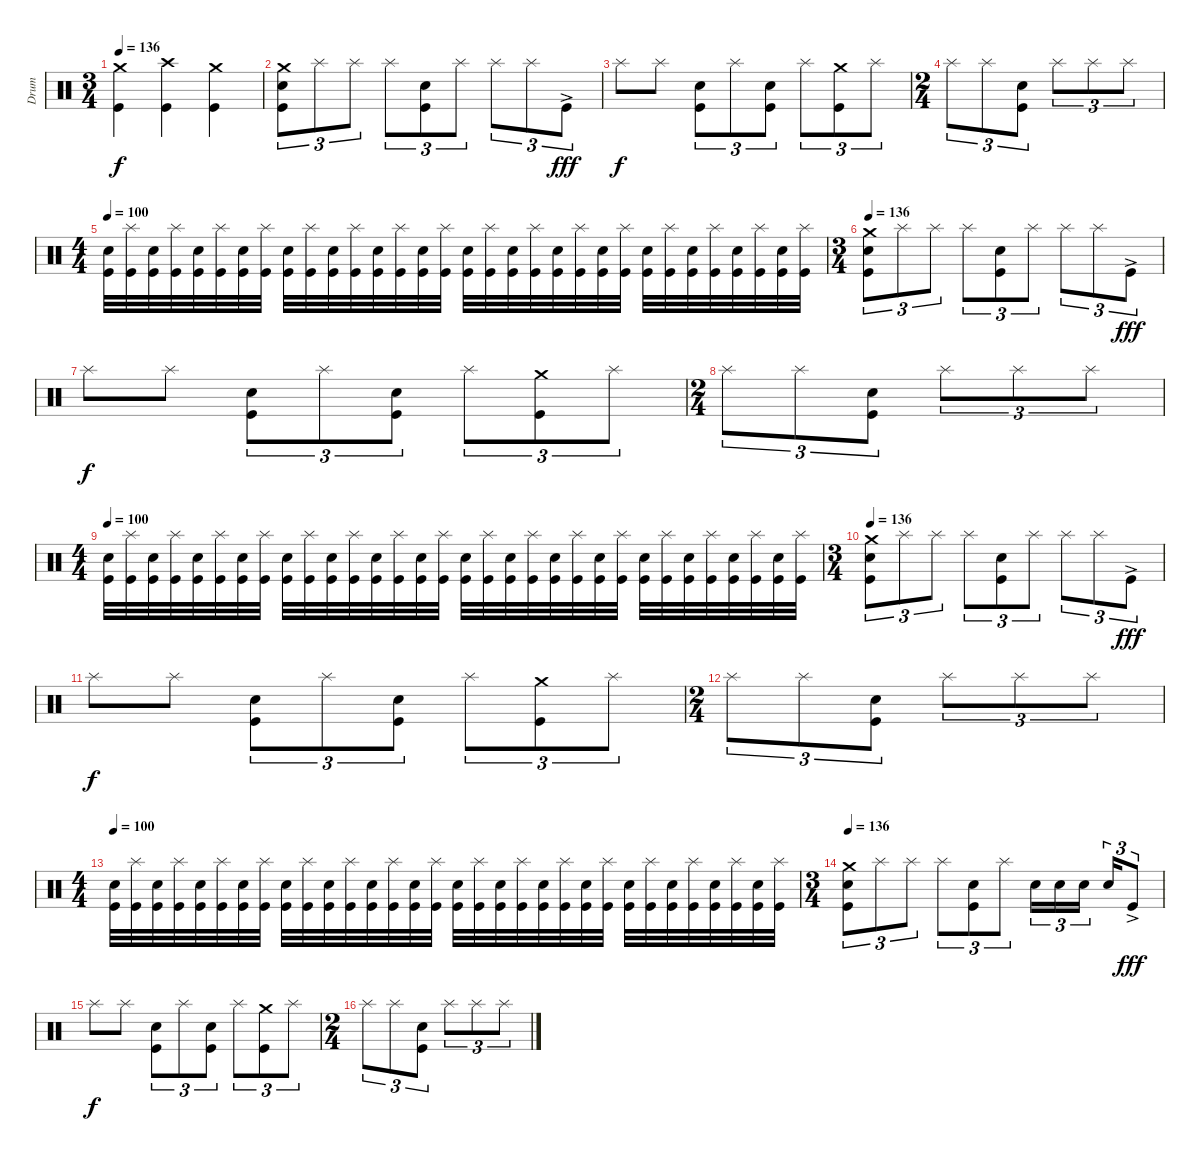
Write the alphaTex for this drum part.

\track ("Drum" "Drum") {instrument percussion}
\staff
\articulation defaults
\ts (3 4)
\tempo 136
\clef neutral
\ks c
("Crash medium (hit)"{t} "Kick (hit)"{t}).4{dy f} ("Crash high (hit)" "Kick (hit)").4 ("Crash medium (hit)" "Kick (hit)").4 |
("Crash medium (hit)" "Electric Snare (hit)" "Kick (hit)").8{tu (3 2)} "Splash (hit)".8{tu (3 2)} "Splash (hit)".8{tu (3 2)} "Splash (hit)".8{tu (3 2)} ("Electric Snare (hit)" "Kick (hit)").8{tu (3 2)} "Splash (hit)".8{tu (3 2)} "Splash (hit)".8{tu (3 2)} "Splash (hit)".8{tu (3 2)} "Kick (hit)"{ac}.8{tu (3 2) dy fff} |
"Splash (hit)".8{dy f} "Splash (hit)".8 ("Electric Snare (hit)" "Kick (hit)").8{tu (3 2)} "Splash (hit)".8{tu (3 2)} ("Electric Snare (hit)" "Kick (hit)").8{tu (3 2)} "Splash (hit)".8{tu (3 2)} ("Crash medium (hit)" "Kick (hit)").8{tu (3 2)} "Splash (hit)".8{tu (3 2)} |
\ts (2 4)
"Splash (hit)".8{tu (3 2)} "Splash (hit)".8{tu (3 2)} ("Electric Snare (hit)" "Kick (hit)").8{tu (3 2)} "Splash (hit)".8{tu (3 2)} "Splash (hit)".8{tu (3 2)} "Splash (hit)".8{tu (3 2)} |
\ts (4 4)
\tempo 100
("Electric Snare (hit)" "Kick (hit)").32 ("Splash (hit)" "Kick (hit)").32 ("Electric Snare (hit)" "Kick (hit)").32 ("Splash (hit)" "Kick (hit)").32 ("Electric Snare (hit)" "Kick (hit)").32 ("Splash (hit)" "Kick (hit)").32 ("Electric Snare (hit)" "Kick (hit)").32 ("Splash (hit)" "Kick (hit)").32 ("Electric Snare (hit)" "Kick (hit)").32 ("Splash (hit)" "Kick (hit)").32 ("Electric Snare (hit)" "Kick (hit)").32 ("Splash (hit)" "Kick (hit)").32 ("Electric Snare (hit)" "Kick (hit)").32 ("Splash (hit)" "Kick (hit)").32 ("Electric Snare (hit)" "Kick (hit)").32 ("Splash (hit)" "Kick (hit)").32 ("Electric Snare (hit)" "Kick (hit)").32 ("Splash (hit)" "Kick (hit)").32 ("Electric Snare (hit)" "Kick (hit)").32 ("Splash (hit)" "Kick (hit)").32 ("Electric Snare (hit)" "Kick (hit)").32 ("Splash (hit)" "Kick (hit)").32 ("Electric Snare (hit)" "Kick (hit)").32 ("Splash (hit)" "Kick (hit)").32 ("Electric Snare (hit)" "Kick (hit)").32 ("Splash (hit)" "Kick (hit)").32 ("Electric Snare (hit)" "Kick (hit)").32 ("Splash (hit)" "Kick (hit)").32 ("Electric Snare (hit)" "Kick (hit)").32 ("Splash (hit)" "Kick (hit)").32 ("Electric Snare (hit)" "Kick (hit)").32 ("Splash (hit)" "Kick (hit)").32 |
\ts (3 4)
\tempo 136
("Crash medium (hit)" "Electric Snare (hit)" "Kick (hit)").8{tu (3 2)} "Splash (hit)".8{tu (3 2)} "Splash (hit)".8{tu (3 2)} "Splash (hit)".8{tu (3 2)} ("Electric Snare (hit)" "Kick (hit)").8{tu (3 2)} "Splash (hit)".8{tu (3 2)} "Splash (hit)".8{tu (3 2)} "Splash (hit)".8{tu (3 2)} "Kick (hit)"{ac}.8{tu (3 2) dy fff} |
"Splash (hit)".8{dy f} "Splash (hit)".8 ("Electric Snare (hit)" "Kick (hit)").8{tu (3 2)} "Splash (hit)".8{tu (3 2)} ("Electric Snare (hit)" "Kick (hit)").8{tu (3 2)} "Splash (hit)".8{tu (3 2)} ("Crash medium (hit)" "Kick (hit)").8{tu (3 2)} "Splash (hit)".8{tu (3 2)} |
\ts (2 4)
"Splash (hit)".8{tu (3 2)} "Splash (hit)".8{tu (3 2)} ("Electric Snare (hit)" "Kick (hit)").8{tu (3 2)} "Splash (hit)".8{tu (3 2)} "Splash (hit)".8{tu (3 2)} "Splash (hit)".8{tu (3 2)} |
\ts (4 4)
\tempo 100
("Electric Snare (hit)" "Kick (hit)").32 ("Splash (hit)" "Kick (hit)").32 ("Electric Snare (hit)" "Kick (hit)").32 ("Splash (hit)" "Kick (hit)").32 ("Electric Snare (hit)" "Kick (hit)").32 ("Splash (hit)" "Kick (hit)").32 ("Electric Snare (hit)" "Kick (hit)").32 ("Splash (hit)" "Kick (hit)").32 ("Electric Snare (hit)" "Kick (hit)").32 ("Splash (hit)" "Kick (hit)").32 ("Electric Snare (hit)" "Kick (hit)").32 ("Splash (hit)" "Kick (hit)").32 ("Electric Snare (hit)" "Kick (hit)").32 ("Splash (hit)" "Kick (hit)").32 ("Electric Snare (hit)" "Kick (hit)").32 ("Splash (hit)" "Kick (hit)").32 ("Electric Snare (hit)" "Kick (hit)").32 ("Splash (hit)" "Kick (hit)").32 ("Electric Snare (hit)" "Kick (hit)").32 ("Splash (hit)" "Kick (hit)").32 ("Electric Snare (hit)" "Kick (hit)").32 ("Splash (hit)" "Kick (hit)").32 ("Electric Snare (hit)" "Kick (hit)").32 ("Splash (hit)" "Kick (hit)").32 ("Electric Snare (hit)" "Kick (hit)").32 ("Splash (hit)" "Kick (hit)").32 ("Electric Snare (hit)" "Kick (hit)").32 ("Splash (hit)" "Kick (hit)").32 ("Electric Snare (hit)" "Kick (hit)").32 ("Splash (hit)" "Kick (hit)").32 ("Electric Snare (hit)" "Kick (hit)").32 ("Splash (hit)" "Kick (hit)").32 |
\ts (3 4)
\tempo 136
("Crash medium (hit)" "Electric Snare (hit)" "Kick (hit)").8{tu (3 2)} "Splash (hit)".8{tu (3 2)} "Splash (hit)".8{tu (3 2)} "Splash (hit)".8{tu (3 2)} ("Electric Snare (hit)" "Kick (hit)").8{tu (3 2)} "Splash (hit)".8{tu (3 2)} "Splash (hit)".8{tu (3 2)} "Splash (hit)".8{tu (3 2)} "Kick (hit)"{ac}.8{tu (3 2) dy fff} |
"Splash (hit)".8{dy f} "Splash (hit)".8 ("Electric Snare (hit)" "Kick (hit)").8{tu (3 2)} "Splash (hit)".8{tu (3 2)} ("Electric Snare (hit)" "Kick (hit)").8{tu (3 2)} "Splash (hit)".8{tu (3 2)} ("Crash medium (hit)" "Kick (hit)").8{tu (3 2)} "Splash (hit)".8{tu (3 2)} |
\ts (2 4)
"Splash (hit)".8{tu (3 2)} "Splash (hit)".8{tu (3 2)} ("Electric Snare (hit)" "Kick (hit)").8{tu (3 2)} "Splash (hit)".8{tu (3 2)} "Splash (hit)".8{tu (3 2)} "Splash (hit)".8{tu (3 2)} |
\ts (4 4)
\tempo 100
("Electric Snare (hit)" "Kick (hit)").32 ("Splash (hit)" "Kick (hit)").32 ("Electric Snare (hit)" "Kick (hit)").32 ("Splash (hit)" "Kick (hit)").32 ("Electric Snare (hit)" "Kick (hit)").32 ("Splash (hit)" "Kick (hit)").32 ("Electric Snare (hit)" "Kick (hit)").32 ("Splash (hit)" "Kick (hit)").32 ("Electric Snare (hit)" "Kick (hit)").32 ("Splash (hit)" "Kick (hit)").32 ("Electric Snare (hit)" "Kick (hit)").32 ("Splash (hit)" "Kick (hit)").32 ("Electric Snare (hit)" "Kick (hit)").32 ("Splash (hit)" "Kick (hit)").32 ("Electric Snare (hit)" "Kick (hit)").32 ("Splash (hit)" "Kick (hit)").32 ("Electric Snare (hit)" "Kick (hit)").32 ("Splash (hit)" "Kick (hit)").32 ("Electric Snare (hit)" "Kick (hit)").32 ("Splash (hit)" "Kick (hit)").32 ("Electric Snare (hit)" "Kick (hit)").32 ("Splash (hit)" "Kick (hit)").32 ("Electric Snare (hit)" "Kick (hit)").32 ("Splash (hit)" "Kick (hit)").32 ("Electric Snare (hit)" "Kick (hit)").32 ("Splash (hit)" "Kick (hit)").32 ("Electric Snare (hit)" "Kick (hit)").32 ("Splash (hit)" "Kick (hit)").32 ("Electric Snare (hit)" "Kick (hit)").32 ("Splash (hit)" "Kick (hit)").32 ("Electric Snare (hit)" "Kick (hit)").32 ("Splash (hit)" "Kick (hit)").32 |
\ts (3 4)
\tempo 136
("Crash medium (hit)" "Electric Snare (hit)" "Kick (hit)").8{tu (3 2)} "Splash (hit)".8{tu (3 2)} "Splash (hit)".8{tu (3 2)} "Splash (hit)".8{tu (3 2)} ("Electric Snare (hit)" "Kick (hit)").8{tu (3 2)} "Splash (hit)".8{tu (3 2)} "Electric Snare (hit)".16{tu (3 2)} "Electric Snare (hit)".16{tu (3 2)} "Electric Snare (hit)".16{tu (3 2) beam splitsecondary} "Electric Snare (hit)".16{tu (3 2)} "Kick (hit)"{ac}.8{tu (3 2) dy fff} |
"Splash (hit)".8{dy f} "Splash (hit)".8 ("Electric Snare (hit)" "Kick (hit)").8{tu (3 2)} "Splash (hit)".8{tu (3 2)} ("Electric Snare (hit)" "Kick (hit)").8{tu (3 2)} "Splash (hit)".8{tu (3 2)} ("Crash medium (hit)" "Kick (hit)").8{tu (3 2)} "Splash (hit)".8{tu (3 2)} |
\ts (2 4)
"Splash (hit)".8{tu (3 2)} "Splash (hit)".8{tu (3 2)} ("Electric Snare (hit)" "Kick (hit)").8{tu (3 2)} "Splash (hit)".8{tu (3 2)} "Splash (hit)".8{tu (3 2)} "Splash (hit)".8{tu (3 2)}
